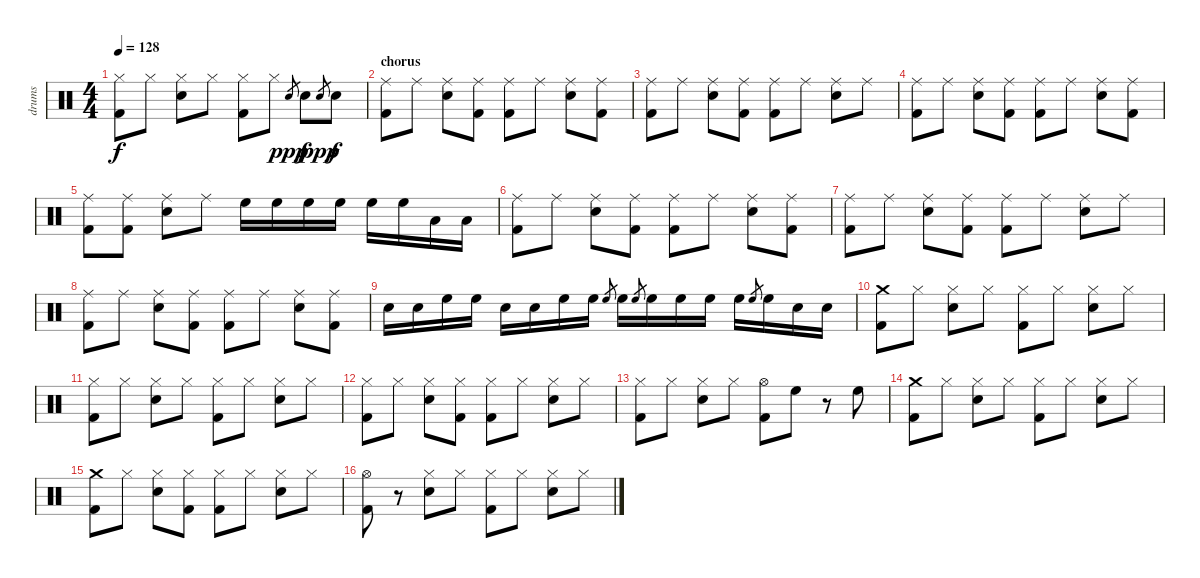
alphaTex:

\track ("drums" "drums") {instrument percussion}
\staff {score}
\articulation defaults
\ts (4 4)
\tempo 128
\clef neutral
\ks c
("Hi-Hat (closed)" "Kick (hit) 2").8{dy f} "Hi-Hat (closed)".8 ("Hi-Hat (closed)" "Snare (hit) 2").8 "Hi-Hat (closed)".8 ("Hi-Hat (closed)" "Kick (hit) 2").8 "Hi-Hat (closed)".8 "Snare (hit) 2".8{gr dy ppp} "Snare (hit) 2".8{dy f} "Snare (hit) 2".8{gr dy ppp} "Snare (hit) 2".8{dy f} |
\section ("" "chorus")
("Ride (middle)" "Kick (hit) 2").8 "Ride (middle)".8 ("Ride (middle)" "Snare (hit) 2").8 ("Ride (middle)" "Kick (hit) 2").8 ("Ride (middle)" "Kick (hit) 2").8 "Ride (middle)".8 ("Ride (middle)" "Snare (hit) 2").8 ("Ride (middle)" "Kick (hit) 2").8 |
("Ride (middle)" "Kick (hit) 2").8 "Ride (middle)".8 ("Ride (middle)" "Snare (hit) 2").8 ("Ride (middle)" "Kick (hit) 2").8 ("Ride (middle)" "Kick (hit) 2").8 "Ride (middle)".8 ("Ride (middle)" "Snare (hit) 2").8 "Ride (middle)".8 |
("Ride (middle)" "Kick (hit) 2").8 "Ride (middle)".8 ("Ride (middle)" "Snare (hit) 2").8 ("Ride (middle)" "Kick (hit) 2").8 ("Ride (middle)" "Kick (hit) 2").8 "Ride (middle)".8 ("Ride (middle)" "Snare (hit) 2").8 ("Ride (middle)" "Kick (hit) 2").8 |
("Ride (middle)" "Kick (hit) 2").8 ("Ride (middle)" "Kick (hit) 2").8 ("Ride (middle)" "Snare (hit) 2").8 "Ride (middle)".8 "High Floor Tom (hit)".16 "High Floor Tom (hit)".16 "High Floor Tom (hit)".16 "High Floor Tom (hit)".16 "High Floor Tom (hit)".16 "High Floor Tom (hit)".16 "Low Floor Tom (hit)".16 "Low Floor Tom (hit)".16 |
("Ride (middle)" "Kick (hit) 2").8 "Ride (middle)".8 ("Ride (middle)" "Snare (hit) 2").8 ("Ride (middle)" "Kick (hit) 2").8 ("Ride (middle)" "Kick (hit) 2").8 "Ride (middle)".8 ("Ride (middle)" "Snare (hit) 2").8 ("Ride (middle)" "Kick (hit) 2").8 |
("Ride (middle)" "Kick (hit) 2").8 "Ride (middle)".8 ("Ride (middle)" "Snare (hit) 2").8 ("Ride (middle)" "Kick (hit) 2").8 ("Ride (middle)" "Kick (hit) 2").8 "Ride (middle)".8 ("Ride (middle)" "Snare (hit) 2").8 "Ride (middle)".8 |
("Ride (middle)" "Kick (hit) 2").8 "Ride (middle)".8 ("Ride (middle)" "Snare (hit) 2").8 ("Ride (middle)" "Kick (hit) 2").8 ("Ride (middle)" "Kick (hit) 2").8 "Ride (middle)".8 ("Ride (middle)" "Snare (hit) 2").8 ("Ride (middle)" "Kick (hit) 2").8 |
"Snare (hit) 2".16 "Snare (hit) 2".16 "High Floor Tom (hit)".16 "High Floor Tom (hit)".16 "Snare (hit) 2".16 "Snare (hit) 2".16 "High Floor Tom (hit)".16 "High Floor Tom (hit)".16 "High Floor Tom (hit)".8{gr} "High Floor Tom (hit)".16 "High Floor Tom (hit)".8{gr} "High Floor Tom (hit)".16 "High Floor Tom (hit)".16 "High Floor Tom (hit)".16 "High Floor Tom (hit)".16 "High Floor Tom (hit)".8{gr} "High Floor Tom (hit)".16 "Snare (hit) 2".16 "Snare (hit) 2".16 |
("Crash medium (hit)" "Kick (hit) 2").8 "Hi-Hat (closed)".8 ("Hi-Hat (closed)" "Snare (hit) 2").8 "Hi-Hat (closed)".8 ("Hi-Hat (closed)" "Kick (hit) 2").8 "Hi-Hat (closed)".8 ("Hi-Hat (closed)" "Snare (hit) 2").8 "Hi-Hat (closed)".8 |
("Hi-Hat (closed)" "Kick (hit) 2").8 "Hi-Hat (closed)".8 ("Hi-Hat (closed)" "Snare (hit) 2").8 "Hi-Hat (closed)".8 ("Hi-Hat (closed)" "Kick (hit) 2").8 "Hi-Hat (closed)".8 ("Hi-Hat (closed)" "Snare (hit) 2").8 "Hi-Hat (closed)".8 |
("Hi-Hat (closed)" "Kick (hit) 2").8 "Hi-Hat (closed)".8 ("Hi-Hat (closed)" "Snare (hit) 2").8 ("Hi-Hat (closed)" "Kick (hit) 2").8 ("Hi-Hat (closed)" "Kick (hit) 2").8 "Hi-Hat (closed)".8 ("Hi-Hat (closed)" "Snare (hit) 2").8 "Hi-Hat (closed)".8 |
("Hi-Hat (closed)" "Kick (hit) 2").8 "Hi-Hat (closed)".8 ("Hi-Hat (closed)" "Snare (hit) 2").8 "Hi-Hat (closed)".8 ("Hi-Hat (open)" "Kick (hit) 2").8 "High Floor Tom (hit)".8 r.8 "High Floor Tom (hit)".8 |
("Crash medium (hit)" "Kick (hit) 2").8 "Hi-Hat (closed)".8 ("Hi-Hat (closed)" "Snare (hit) 2").8 "Hi-Hat (closed)".8 ("Hi-Hat (closed)" "Kick (hit) 2").8 "Hi-Hat (closed)".8 ("Hi-Hat (closed)" "Snare (hit) 2").8 "Hi-Hat (closed)".8 |
("Crash medium (hit)" "Kick (hit) 2").8 "Hi-Hat (closed)".8 ("Hi-Hat (closed)" "Snare (hit) 2").8 ("Hi-Hat (closed)" "Kick (hit) 2").8 ("Hi-Hat (closed)" "Kick (hit) 2").8 "Hi-Hat (closed)".8 ("Hi-Hat (closed)" "Snare (hit) 2").8 "Hi-Hat (closed)".8 |
("Hi-Hat (open)" "Kick (hit) 2").8 r.8 ("Hi-Hat (closed)" "Snare (hit) 2").8 "Hi-Hat (closed)".8 ("Hi-Hat (closed)" "Kick (hit) 2").8 "Hi-Hat (closed)".8 ("Hi-Hat (closed)" "Snare (hit) 2").8 "Hi-Hat (closed)".8
